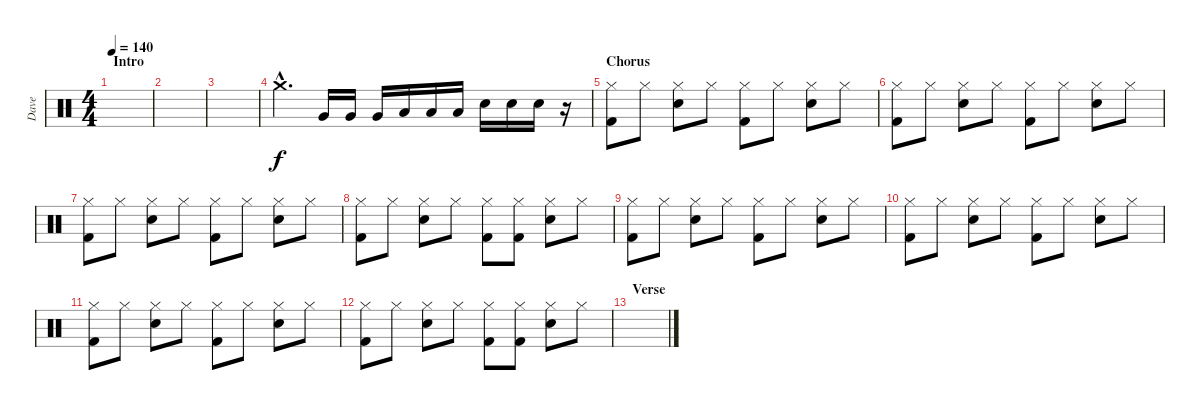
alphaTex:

\track ("Dave" "Dave") {instrument percussion}
\staff {score}
\articulation defaults
\ts (4 4)
\section ("" "Intro")
\tempo 140
\clef neutral
\ks c
|
|
|
"Crash medium (hit)"{hac}.4{d} "Very Low Tom (hit)".16 "Very Low Tom (hit)".16 "Very Low Tom (hit)".16 "Low Floor Tom (hit)".16 "Low Floor Tom (hit)".16 "Low Floor Tom (hit)".16 "Snare (hit) 2".16 "Snare (hit) 2".16 "Snare (hit) 2".16 r.16 |
\section ("" "Chorus")
("Hi-Hat (closed)" "Kick (hit) 2").8 "Hi-Hat (closed)".8 ("Hi-Hat (closed)" "Electric Snare (hit)").8 "Hi-Hat (closed)".8 ("Hi-Hat (closed)" "Kick (hit) 2").8 "Hi-Hat (closed)".8 ("Hi-Hat (closed)" "Electric Snare (hit)").8 "Hi-Hat (closed)".8 |
("Hi-Hat (closed)" "Kick (hit) 2").8 "Hi-Hat (closed)".8 ("Hi-Hat (closed)" "Electric Snare (hit)").8 "Hi-Hat (closed)".8 ("Hi-Hat (closed)" "Kick (hit) 2").8 "Hi-Hat (closed)".8 ("Hi-Hat (closed)" "Electric Snare (hit)").8 "Hi-Hat (closed)".8 |
("Hi-Hat (closed)" "Kick (hit) 2").8 "Hi-Hat (closed)".8 ("Hi-Hat (closed)" "Electric Snare (hit)").8 "Hi-Hat (closed)".8 ("Hi-Hat (closed)" "Kick (hit) 2").8 "Hi-Hat (closed)".8 ("Hi-Hat (closed)" "Electric Snare (hit)").8 "Hi-Hat (closed)".8 |
("Hi-Hat (closed)" "Kick (hit) 2").8 "Hi-Hat (closed)".8 ("Hi-Hat (closed)" "Electric Snare (hit)").8 "Hi-Hat (closed)".8 ("Hi-Hat (closed)" "Kick (hit) 2").8 ("Hi-Hat (closed)" "Kick (hit) 2").8 ("Hi-Hat (closed)" "Electric Snare (hit)").8 "Hi-Hat (closed)".8 |
("Hi-Hat (closed)" "Kick (hit) 2").8 "Hi-Hat (closed)".8 ("Hi-Hat (closed)" "Electric Snare (hit)").8 "Hi-Hat (closed)".8 ("Hi-Hat (closed)" "Kick (hit) 2").8 "Hi-Hat (closed)".8 ("Hi-Hat (closed)" "Electric Snare (hit)").8 "Hi-Hat (closed)".8 |
("Hi-Hat (closed)" "Kick (hit) 2").8 "Hi-Hat (closed)".8 ("Hi-Hat (closed)" "Electric Snare (hit)").8 "Hi-Hat (closed)".8 ("Hi-Hat (closed)" "Kick (hit) 2").8 "Hi-Hat (closed)".8 ("Hi-Hat (closed)" "Electric Snare (hit)").8 "Hi-Hat (closed)".8 |
("Hi-Hat (closed)" "Kick (hit) 2").8 "Hi-Hat (closed)".8 ("Hi-Hat (closed)" "Electric Snare (hit)").8 "Hi-Hat (closed)".8 ("Hi-Hat (closed)" "Kick (hit) 2").8 "Hi-Hat (closed)".8 ("Hi-Hat (closed)" "Electric Snare (hit)").8 "Hi-Hat (closed)".8 |
("Hi-Hat (closed)" "Kick (hit) 2").8 "Hi-Hat (closed)".8 ("Hi-Hat (closed)" "Electric Snare (hit)").8 "Hi-Hat (closed)".8 ("Hi-Hat (closed)" "Kick (hit) 2").8 ("Hi-Hat (closed)" "Kick (hit) 2").8 ("Hi-Hat (closed)" "Electric Snare (hit)").8 "Hi-Hat (closed)".8 |
\section ("" "Verse")
